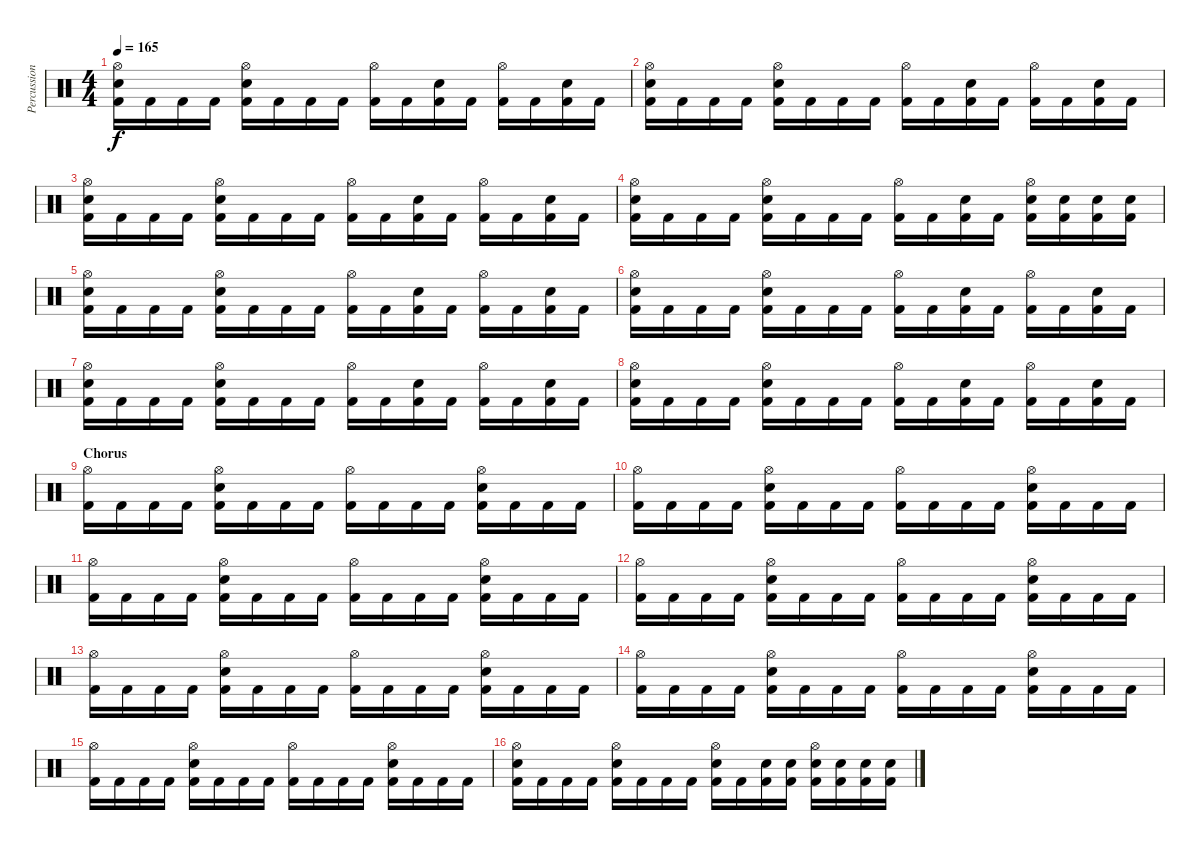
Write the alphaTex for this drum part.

\track ("Percussion" "Percussion") {instrument percussion}
\staff {score}
\articulation defaults
\ts (4 4)
\tempo 165
\clef neutral
\ks c
("Hi-Hat (open)" "Snare (hit) 2" "Kick (hit) 2").16{dy f} "Kick (hit) 2".16 "Kick (hit) 2".16 "Kick (hit) 2".16 ("Hi-Hat (open)" "Snare (hit) 2" "Kick (hit) 2").16 "Kick (hit) 2".16 "Kick (hit) 2".16 "Kick (hit) 2".16 ("Hi-Hat (open)" "Kick (hit) 2").16 "Kick (hit) 2".16 ("Snare (hit) 2" "Kick (hit) 2").16 "Kick (hit) 2".16 ("Hi-Hat (open)" "Kick (hit) 2").16 "Kick (hit) 2".16 ("Snare (hit) 2" "Kick (hit) 2").16 "Kick (hit) 2".16 |
("Hi-Hat (open)" "Snare (hit) 2" "Kick (hit) 2").16 "Kick (hit) 2".16 "Kick (hit) 2".16 "Kick (hit) 2".16 ("Hi-Hat (open)" "Snare (hit) 2" "Kick (hit) 2").16 "Kick (hit) 2".16 "Kick (hit) 2".16 "Kick (hit) 2".16 ("Hi-Hat (open)" "Kick (hit) 2").16 "Kick (hit) 2".16 ("Snare (hit) 2" "Kick (hit) 2").16 "Kick (hit) 2".16 ("Hi-Hat (open)" "Kick (hit) 2").16 "Kick (hit) 2".16 ("Snare (hit) 2" "Kick (hit) 2").16 "Kick (hit) 2".16 |
("Hi-Hat (open)" "Snare (hit) 2" "Kick (hit) 2").16 "Kick (hit) 2".16 "Kick (hit) 2".16 "Kick (hit) 2".16 ("Hi-Hat (open)" "Snare (hit) 2" "Kick (hit) 2").16 "Kick (hit) 2".16 "Kick (hit) 2".16 "Kick (hit) 2".16 ("Hi-Hat (open)" "Kick (hit) 2").16 "Kick (hit) 2".16 ("Snare (hit) 2" "Kick (hit) 2").16 "Kick (hit) 2".16 ("Hi-Hat (open)" "Kick (hit) 2").16 "Kick (hit) 2".16 ("Snare (hit) 2" "Kick (hit) 2").16 "Kick (hit) 2".16 |
("Hi-Hat (open)" "Snare (hit) 2" "Kick (hit) 2").16 "Kick (hit) 2".16 "Kick (hit) 2".16 "Kick (hit) 2".16 ("Hi-Hat (open)" "Snare (hit) 2" "Kick (hit) 2").16 "Kick (hit) 2".16 "Kick (hit) 2".16 "Kick (hit) 2".16 ("Hi-Hat (open)" "Kick (hit) 2").16 "Kick (hit) 2".16 ("Snare (hit) 2" "Kick (hit) 2").16 "Kick (hit) 2".16 ("Hi-Hat (open)" "Snare (hit) 2" "Kick (hit) 2").16 ("Snare (hit) 2" "Kick (hit) 2").16 ("Snare (hit) 2" "Kick (hit) 2").16 ("Snare (hit) 2" "Kick (hit) 2").16 |
("Hi-Hat (open)" "Snare (hit) 2" "Kick (hit) 2").16 "Kick (hit) 2".16 "Kick (hit) 2".16 "Kick (hit) 2".16 ("Hi-Hat (open)" "Snare (hit) 2" "Kick (hit) 2").16 "Kick (hit) 2".16 "Kick (hit) 2".16 "Kick (hit) 2".16 ("Hi-Hat (open)" "Kick (hit) 2").16 "Kick (hit) 2".16 ("Snare (hit) 2" "Kick (hit) 2").16 "Kick (hit) 2".16 ("Hi-Hat (open)" "Kick (hit) 2").16 "Kick (hit) 2".16 ("Snare (hit) 2" "Kick (hit) 2").16 "Kick (hit) 2".16 |
("Hi-Hat (open)" "Snare (hit) 2" "Kick (hit) 2").16 "Kick (hit) 2".16 "Kick (hit) 2".16 "Kick (hit) 2".16 ("Hi-Hat (open)" "Snare (hit) 2" "Kick (hit) 2").16 "Kick (hit) 2".16 "Kick (hit) 2".16 "Kick (hit) 2".16 ("Hi-Hat (open)" "Kick (hit) 2").16 "Kick (hit) 2".16 ("Snare (hit) 2" "Kick (hit) 2").16 "Kick (hit) 2".16 ("Hi-Hat (open)" "Kick (hit) 2").16 "Kick (hit) 2".16 ("Snare (hit) 2" "Kick (hit) 2").16 "Kick (hit) 2".16 |
("Hi-Hat (open)" "Snare (hit) 2" "Kick (hit) 2").16 "Kick (hit) 2".16 "Kick (hit) 2".16 "Kick (hit) 2".16 ("Hi-Hat (open)" "Snare (hit) 2" "Kick (hit) 2").16 "Kick (hit) 2".16 "Kick (hit) 2".16 "Kick (hit) 2".16 ("Hi-Hat (open)" "Kick (hit) 2").16 "Kick (hit) 2".16 ("Snare (hit) 2" "Kick (hit) 2").16 "Kick (hit) 2".16 ("Hi-Hat (open)" "Kick (hit) 2").16 "Kick (hit) 2".16 ("Snare (hit) 2" "Kick (hit) 2").16 "Kick (hit) 2".16 |
("Hi-Hat (open)" "Snare (hit) 2" "Kick (hit) 2").16 "Kick (hit) 2".16 "Kick (hit) 2".16 "Kick (hit) 2".16 ("Hi-Hat (open)" "Snare (hit) 2" "Kick (hit) 2").16 "Kick (hit) 2".16 "Kick (hit) 2".16 "Kick (hit) 2".16 ("Hi-Hat (open)" "Kick (hit) 2").16 "Kick (hit) 2".16 ("Snare (hit) 2" "Kick (hit) 2").16 "Kick (hit) 2".16 ("Hi-Hat (open)" "Kick (hit) 2").16 "Kick (hit) 2".16 ("Snare (hit) 2" "Kick (hit) 2").16 "Kick (hit) 2".16 |
\section ("" "Chorus")
("Hi-Hat (open)" "Kick (hit) 2").16 "Kick (hit) 2".16 "Kick (hit) 2".16 "Kick (hit) 2".16 ("Hi-Hat (open)" "Snare (hit) 2" "Kick (hit) 2").16 "Kick (hit) 2".16 "Kick (hit) 2".16 "Kick (hit) 2".16 ("Hi-Hat (open)" "Kick (hit) 2").16 "Kick (hit) 2".16 "Kick (hit) 2".16 "Kick (hit) 2".16 ("Hi-Hat (open)" "Snare (hit) 2" "Kick (hit) 2").16 "Kick (hit) 2".16 "Kick (hit) 2".16 "Kick (hit) 2".16 |
("Hi-Hat (open)" "Kick (hit) 2").16 "Kick (hit) 2".16 "Kick (hit) 2".16 "Kick (hit) 2".16 ("Hi-Hat (open)" "Snare (hit) 2" "Kick (hit) 2").16 "Kick (hit) 2".16 "Kick (hit) 2".16 "Kick (hit) 2".16 ("Hi-Hat (open)" "Kick (hit) 2").16 "Kick (hit) 2".16 "Kick (hit) 2".16 "Kick (hit) 2".16 ("Hi-Hat (open)" "Snare (hit) 2" "Kick (hit) 2").16 "Kick (hit) 2".16 "Kick (hit) 2".16 "Kick (hit) 2".16 |
("Hi-Hat (open)" "Kick (hit) 2").16 "Kick (hit) 2".16 "Kick (hit) 2".16 "Kick (hit) 2".16 ("Hi-Hat (open)" "Snare (hit) 2" "Kick (hit) 2").16 "Kick (hit) 2".16 "Kick (hit) 2".16 "Kick (hit) 2".16 ("Hi-Hat (open)" "Kick (hit) 2").16 "Kick (hit) 2".16 "Kick (hit) 2".16 "Kick (hit) 2".16 ("Hi-Hat (open)" "Snare (hit) 2" "Kick (hit) 2").16 "Kick (hit) 2".16 "Kick (hit) 2".16 "Kick (hit) 2".16 |
("Hi-Hat (open)" "Kick (hit) 2").16 "Kick (hit) 2".16 "Kick (hit) 2".16 "Kick (hit) 2".16 ("Hi-Hat (open)" "Snare (hit) 2" "Kick (hit) 2").16 "Kick (hit) 2".16 "Kick (hit) 2".16 "Kick (hit) 2".16 ("Hi-Hat (open)" "Kick (hit) 2").16 "Kick (hit) 2".16 "Kick (hit) 2".16 "Kick (hit) 2".16 ("Hi-Hat (open)" "Snare (hit) 2" "Kick (hit) 2").16 "Kick (hit) 2".16 "Kick (hit) 2".16 "Kick (hit) 2".16 |
("Hi-Hat (open)" "Kick (hit) 2").16 "Kick (hit) 2".16 "Kick (hit) 2".16 "Kick (hit) 2".16 ("Hi-Hat (open)" "Snare (hit) 2" "Kick (hit) 2").16 "Kick (hit) 2".16 "Kick (hit) 2".16 "Kick (hit) 2".16 ("Hi-Hat (open)" "Kick (hit) 2").16 "Kick (hit) 2".16 "Kick (hit) 2".16 "Kick (hit) 2".16 ("Hi-Hat (open)" "Snare (hit) 2" "Kick (hit) 2").16 "Kick (hit) 2".16 "Kick (hit) 2".16 "Kick (hit) 2".16 |
("Hi-Hat (open)" "Kick (hit) 2").16 "Kick (hit) 2".16 "Kick (hit) 2".16 "Kick (hit) 2".16 ("Hi-Hat (open)" "Snare (hit) 2" "Kick (hit) 2").16 "Kick (hit) 2".16 "Kick (hit) 2".16 "Kick (hit) 2".16 ("Hi-Hat (open)" "Kick (hit) 2").16 "Kick (hit) 2".16 "Kick (hit) 2".16 "Kick (hit) 2".16 ("Hi-Hat (open)" "Snare (hit) 2" "Kick (hit) 2").16 "Kick (hit) 2".16 "Kick (hit) 2".16 "Kick (hit) 2".16 |
("Hi-Hat (open)" "Kick (hit) 2").16 "Kick (hit) 2".16 "Kick (hit) 2".16 "Kick (hit) 2".16 ("Hi-Hat (open)" "Snare (hit) 2" "Kick (hit) 2").16 "Kick (hit) 2".16 "Kick (hit) 2".16 "Kick (hit) 2".16 ("Hi-Hat (open)" "Kick (hit) 2").16 "Kick (hit) 2".16 "Kick (hit) 2".16 "Kick (hit) 2".16 ("Hi-Hat (open)" "Snare (hit) 2" "Kick (hit) 2").16 "Kick (hit) 2".16 "Kick (hit) 2".16 "Kick (hit) 2".16 |
("Hi-Hat (open)" "Snare (hit) 2" "Kick (hit) 2").16 "Kick (hit) 2".16 "Kick (hit) 2".16 "Kick (hit) 2".16 ("Hi-Hat (open)" "Snare (hit) 2" "Kick (hit) 2").16 "Kick (hit) 2".16 "Kick (hit) 2".16 "Kick (hit) 2".16 ("Hi-Hat (open)" "Snare (hit) 2" "Kick (hit) 2").16 "Kick (hit) 2".16 ("Snare (hit) 2" "Kick (hit) 2").16 ("Snare (hit) 2" "Kick (hit) 2").16 ("Hi-Hat (open)" "Snare (hit) 2" "Kick (hit) 2").16 ("Snare (hit) 2" "Kick (hit) 2").16 ("Snare (hit) 2" "Kick (hit) 2").16 ("Snare (hit) 2" "Kick (hit) 2").16
